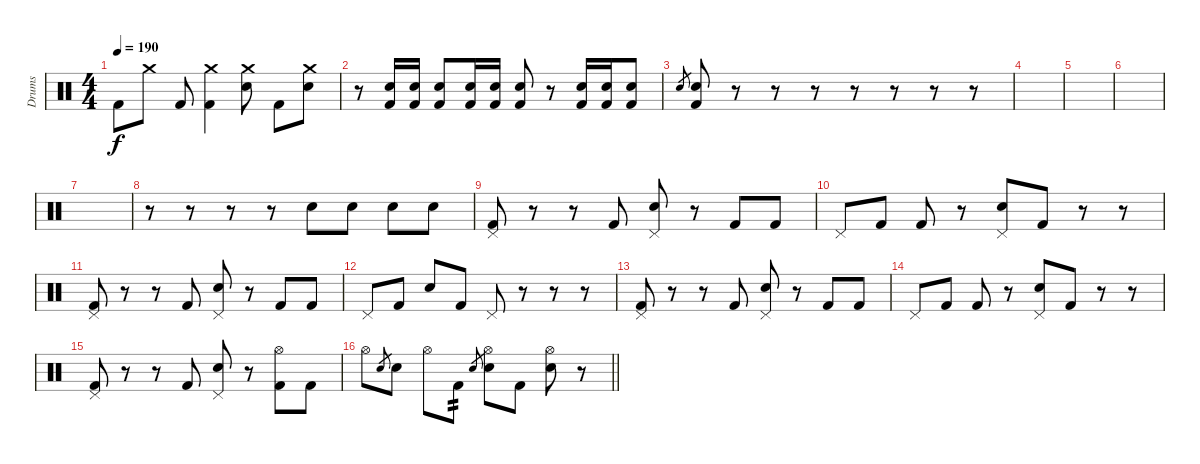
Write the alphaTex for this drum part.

\track ("Drums" "Drums") {instrument percussion}
\staff {score}
\articulation defaults
\ts (4 4)
\tempo 190
\clef neutral
\ks c "Kick (hit) 2".8{dy f} "Crash medium (hit)".8 "Kick (hit) 2".8
("Crash medium (hit)" "Kick (hit) 2").4 ("Crash medium (hit)" "Electric Snare (hit)").8 "Kick (hit) 2".8 ("Crash medium (hit)" "Electric Snare (hit)").8 |
r.8 ("Electric Snare (hit)" "Kick (hit) 2").16 ("Electric Snare (hit)" "Kick (hit) 2").16 ("Electric Snare (hit)" "Kick (hit) 2").8 ("Electric Snare (hit)" "Kick (hit) 2").16 ("Electric Snare (hit)" "Kick (hit) 2").16 ("Electric Snare (hit)" "Kick (hit) 2").8 r.8 ("Electric Snare (hit)" "Kick (hit) 2").16 ("Electric Snare (hit)" "Kick (hit) 2").16 ("Electric Snare (hit)" "Kick (hit) 2").8 |
"Electric Snare (hit)".8{gr} ("Electric Snare (hit)" "Kick (hit) 2").8 r.8 r.8 r.8 r.8 r.8 r.8 r.8 |
|
|
|
|
r.8 r.8 r.8 r.8 "Electric Snare (hit)".8 "Electric Snare (hit)".8 "Electric Snare (hit)".8 "Electric Snare (hit)".8 |
("Pedal Hi-Hat (hit)" "Kick (hit) 2").8 r.8 r.8 "Kick (hit) 2".8 ("Pedal Hi-Hat (hit)" "Electric Snare (hit)").8 r.8 "Kick (hit) 2".8 "Kick (hit) 2".8 |
"Pedal Hi-Hat (hit)".8 "Kick (hit) 2".8 "Kick (hit) 2".8 r.8 ("Pedal Hi-Hat (hit)" "Electric Snare (hit)").8 "Kick (hit) 2".8 r.8 r.8 |
("Pedal Hi-Hat (hit)" "Kick (hit) 2").8 r.8 r.8 "Kick (hit) 2".8 ("Pedal Hi-Hat (hit)" "Electric Snare (hit)").8 r.8 "Kick (hit) 2".8 "Kick (hit) 2".8 |
"Pedal Hi-Hat (hit)".8 "Kick (hit) 2".8 "Electric Snare (hit)".8 "Kick (hit) 2".8 "Pedal Hi-Hat (hit)".8 r.8 r.8 r.8 |
("Pedal Hi-Hat (hit)" "Kick (hit) 2").8 r.8 r.8 "Kick (hit) 2".8 ("Pedal Hi-Hat (hit)" "Electric Snare (hit)").8 r.8 "Kick (hit) 2".8 "Kick (hit) 2".8 |
"Pedal Hi-Hat (hit)".8 "Kick (hit) 2".8 "Kick (hit) 2".8 r.8 ("Pedal Hi-Hat (hit)" "Electric Snare (hit)").8 "Kick (hit) 2".8 r.8 r.8 |
("Pedal Hi-Hat (hit)" "Kick (hit) 2").8 r.8 r.8 "Kick (hit) 2".8 ("Pedal Hi-Hat (hit)" "Electric Snare (hit)").8 r.8 ("Hi-Hat (open)" "Kick (hit) 2").8 "Kick (hit) 2".8 |
\barLineRight lightlight "Hi-Hat (open)".8 "Electric Snare (hit)".8{gr} "Electric Snare (hit)".8 "Hi-Hat (open)".8 "Kick (hit) 2".8{tp 2} "Electric Snare (hit)".8{gr}
("Hi-Hat (open)" "Electric Snare (hit)").8 "Kick (hit) 2".8 ("Hi-Hat (open)" "Electric Snare (hit)").8 r.8
